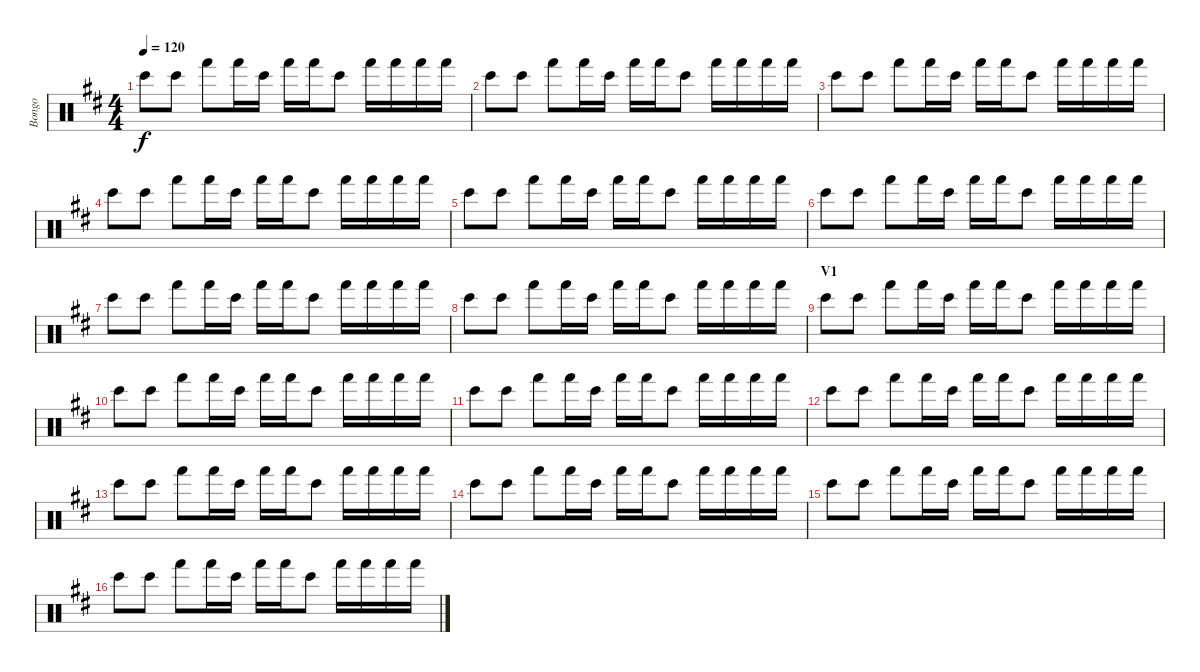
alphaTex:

\track ("Bongo" "Bongo") {instrument percussion}
\staff {score}
\articulation defaults
\ts (4 4)
\tempo 120
\clef neutral
\ks d "Bongo High (hit)".8{dy f} "Bongo High (hit)".8 "Hand (hit)".8 "Hand (hit)".16 "Bongo High (hit)".16 "Hand (hit)".16 "Hand (hit)".16 "Bongo High (hit)".8 "Hand (hit)".16 "Hand (hit)".16 "Hand (hit)".16 "Hand (hit)".16
|
"Bongo High (hit)".8 "Bongo High (hit)".8 "Hand (hit)".8 "Hand (hit)".16 "Bongo High (hit)".16 "Hand (hit)".16 "Hand (hit)".16 "Bongo High (hit)".8 "Hand (hit)".16 "Hand (hit)".16 "Hand (hit)".16 "Hand (hit)".16 |
"Bongo High (hit)".8 "Bongo High (hit)".8 "Hand (hit)".8 "Hand (hit)".16 "Bongo High (hit)".16 "Hand (hit)".16 "Hand (hit)".16 "Bongo High (hit)".8 "Hand (hit)".16 "Hand (hit)".16 "Hand (hit)".16 "Hand (hit)".16 |
"Bongo High (hit)".8 "Bongo High (hit)".8 "Hand (hit)".8 "Hand (hit)".16 "Bongo High (hit)".16 "Hand (hit)".16 "Hand (hit)".16 "Bongo High (hit)".8 "Hand (hit)".16 "Hand (hit)".16 "Hand (hit)".16 "Hand (hit)".16 |
"Bongo High (hit)".8 "Bongo High (hit)".8 "Hand (hit)".8 "Hand (hit)".16 "Bongo High (hit)".16 "Hand (hit)".16 "Hand (hit)".16 "Bongo High (hit)".8 "Hand (hit)".16 "Hand (hit)".16 "Hand (hit)".16 "Hand (hit)".16 |
"Bongo High (hit)".8 "Bongo High (hit)".8 "Hand (hit)".8 "Hand (hit)".16 "Bongo High (hit)".16 "Hand (hit)".16 "Hand (hit)".16 "Bongo High (hit)".8 "Hand (hit)".16 "Hand (hit)".16 "Hand (hit)".16 "Hand (hit)".16 |
"Bongo High (hit)".8 "Bongo High (hit)".8 "Hand (hit)".8 "Hand (hit)".16 "Bongo High (hit)".16 "Hand (hit)".16 "Hand (hit)".16 "Bongo High (hit)".8 "Hand (hit)".16 "Hand (hit)".16 "Hand (hit)".16 "Hand (hit)".16 |
"Bongo High (hit)".8 "Bongo High (hit)".8 "Hand (hit)".8 "Hand (hit)".16 "Bongo High (hit)".16 "Hand (hit)".16 "Hand (hit)".16 "Bongo High (hit)".8 "Hand (hit)".16 "Hand (hit)".16 "Hand (hit)".16 "Hand (hit)".16 |
\section ("" "V1")
"Bongo High (hit)".8 "Bongo High (hit)".8 "Hand (hit)".8 "Hand (hit)".16 "Bongo High (hit)".16 "Hand (hit)".16 "Hand (hit)".16 "Bongo High (hit)".8 "Hand (hit)".16 "Hand (hit)".16 "Hand (hit)".16 "Hand (hit)".16 |
"Bongo High (hit)".8 "Bongo High (hit)".8 "Hand (hit)".8 "Hand (hit)".16 "Bongo High (hit)".16 "Hand (hit)".16 "Hand (hit)".16 "Bongo High (hit)".8 "Hand (hit)".16 "Hand (hit)".16 "Hand (hit)".16 "Hand (hit)".16 |
"Bongo High (hit)".8 "Bongo High (hit)".8 "Hand (hit)".8 "Hand (hit)".16 "Bongo High (hit)".16 "Hand (hit)".16 "Hand (hit)".16 "Bongo High (hit)".8 "Hand (hit)".16 "Hand (hit)".16 "Hand (hit)".16 "Hand (hit)".16 |
"Bongo High (hit)".8 "Bongo High (hit)".8 "Hand (hit)".8 "Hand (hit)".16 "Bongo High (hit)".16 "Hand (hit)".16 "Hand (hit)".16 "Bongo High (hit)".8 "Hand (hit)".16 "Hand (hit)".16 "Hand (hit)".16 "Hand (hit)".16 |
"Bongo High (hit)".8 "Bongo High (hit)".8 "Hand (hit)".8 "Hand (hit)".16 "Bongo High (hit)".16 "Hand (hit)".16 "Hand (hit)".16 "Bongo High (hit)".8 "Hand (hit)".16 "Hand (hit)".16 "Hand (hit)".16 "Hand (hit)".16 |
"Bongo High (hit)".8 "Bongo High (hit)".8 "Hand (hit)".8 "Hand (hit)".16 "Bongo High (hit)".16 "Hand (hit)".16 "Hand (hit)".16 "Bongo High (hit)".8 "Hand (hit)".16 "Hand (hit)".16 "Hand (hit)".16 "Hand (hit)".16 |
"Bongo High (hit)".8 "Bongo High (hit)".8 "Hand (hit)".8 "Hand (hit)".16 "Bongo High (hit)".16 "Hand (hit)".16 "Hand (hit)".16 "Bongo High (hit)".8 "Hand (hit)".16 "Hand (hit)".16 "Hand (hit)".16 "Hand (hit)".16 |
"Bongo High (hit)".8 "Bongo High (hit)".8 "Hand (hit)".8 "Hand (hit)".16 "Bongo High (hit)".16 "Hand (hit)".16 "Hand (hit)".16 "Bongo High (hit)".8 "Hand (hit)".16 "Hand (hit)".16 "Hand (hit)".16 "Hand (hit)".16
